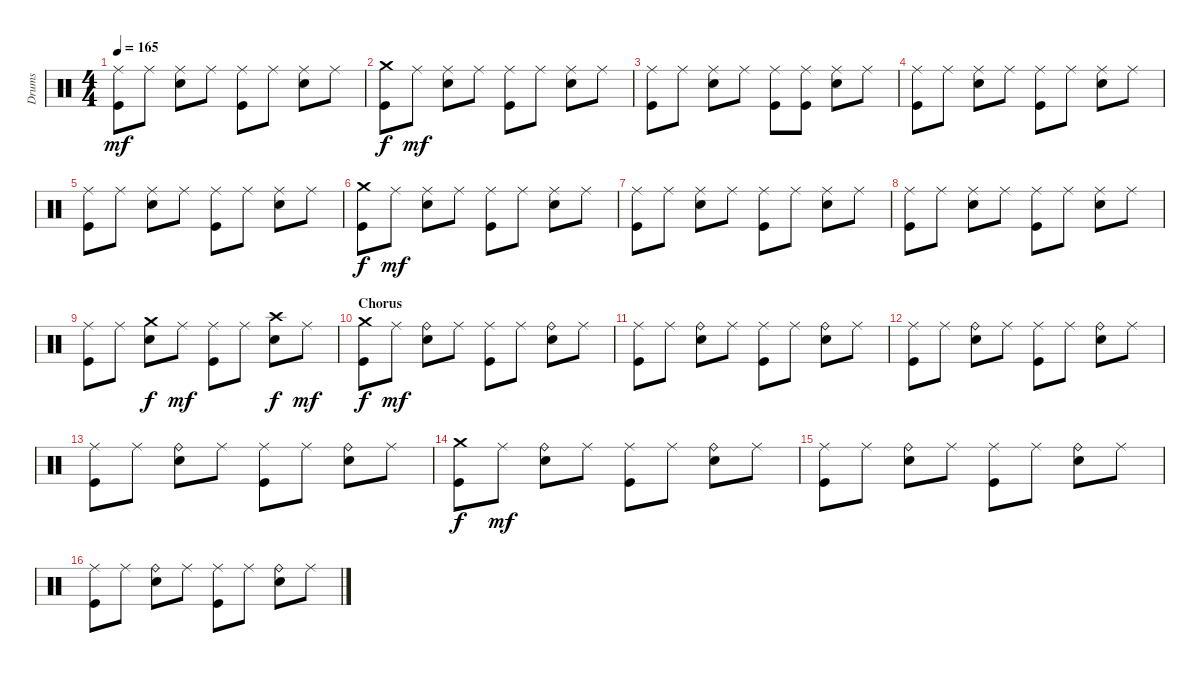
\track ("Drums" "Drums") {instrument percussion}
\staff {score}
\articulation defaults
\ts (4 4)
\tempo 165
\clef neutral
\ks c
("Ride (middle)" "Kick (hit)").8{dy mf} "Ride (middle)".8 ("Ride (middle)" "Electric Snare (hit)").8 "Ride (middle)".8 ("Ride (middle)" "Kick (hit)").8 "Ride (middle)".8 ("Ride (middle)" "Electric Snare (hit)").8 "Ride (middle)".8 |
("Crash medium (hit)" "Kick (hit)").8{dy f} "Ride (middle)".8{dy mf} ("Ride (middle)" "Electric Snare (hit)").8 "Ride (middle)".8 ("Ride (middle)" "Kick (hit)").8 "Ride (middle)".8 ("Ride (middle)" "Electric Snare (hit)").8 "Ride (middle)".8 |
("Ride (middle)" "Kick (hit)").8 "Ride (middle)".8 ("Ride (middle)" "Electric Snare (hit)").8 "Ride (middle)".8 ("Ride (middle)" "Kick (hit)").8 ("Ride (middle)" "Kick (hit)").8 ("Ride (middle)" "Electric Snare (hit)").8 "Ride (middle)".8 |
("Ride (middle)" "Kick (hit)").8 "Ride (middle)".8 ("Ride (middle)" "Electric Snare (hit)").8 "Ride (middle)".8 ("Ride (middle)" "Kick (hit)").8 "Ride (middle)".8 ("Ride (middle)" "Electric Snare (hit)").8 "Ride (middle)".8 |
("Ride (middle)" "Kick (hit)").8 "Ride (middle)".8 ("Ride (middle)" "Electric Snare (hit)").8 "Ride (middle)".8 ("Ride (middle)" "Kick (hit)").8 "Ride (middle)".8 ("Ride (middle)" "Electric Snare (hit)").8 "Ride (middle)".8 |
("Crash medium (hit)" "Kick (hit)").8{dy f} "Ride (middle)".8{dy mf} ("Ride (middle)" "Electric Snare (hit)").8 "Ride (middle)".8 ("Ride (middle)" "Kick (hit)").8 "Ride (middle)".8 ("Ride (middle)" "Electric Snare (hit)").8 "Ride (middle)".8 |
("Ride (middle)" "Kick (hit)").8 "Ride (middle)".8 ("Ride (middle)" "Electric Snare (hit)").8 "Ride (middle)".8 ("Ride (middle)" "Kick (hit)").8 "Ride (middle)".8 ("Ride (middle)" "Electric Snare (hit)").8 "Ride (middle)".8 |
("Ride (middle)" "Kick (hit)").8 "Ride (middle)".8 ("Ride (middle)" "Electric Snare (hit)").8 "Ride (middle)".8 ("Ride (middle)" "Kick (hit)").8 "Ride (middle)".8 ("Ride (middle)" "Electric Snare (hit)").8 "Ride (middle)".8 |
("Ride (middle)" "Kick (hit)").8 "Ride (middle)".8 ("Crash medium (hit)" "Electric Snare (hit)").8{dy f} "Ride (middle)".8{dy mf} ("Ride (middle)" "Kick (hit)").8 "Ride (middle)".8 ("Crash high (hit)" "Electric Snare (hit)").8{dy f} "Ride (middle)".8{dy mf} |
\section ("" "Chorus")
("Crash medium (hit)" "Kick (hit)").8{dy f} "Ride (middle)".8{dy mf} ("Ride (bell)" "Electric Snare (hit)").8 "Ride (middle)".8 ("Ride (middle)" "Kick (hit)").8 "Ride (middle)".8 ("Ride (bell)" "Electric Snare (hit)").8 "Ride (middle)".8 |
("Ride (middle)" "Kick (hit)").8 "Ride (middle)".8 ("Ride (bell)" "Electric Snare (hit)").8 "Ride (middle)".8 ("Ride (middle)" "Kick (hit)").8 "Ride (middle)".8 ("Ride (bell)" "Electric Snare (hit)").8 "Ride (middle)".8 |
("Ride (middle)" "Kick (hit)").8 "Ride (middle)".8 ("Ride (bell)" "Electric Snare (hit)").8 "Ride (middle)".8 ("Ride (middle)" "Kick (hit)").8 "Ride (middle)".8 ("Ride (bell)" "Electric Snare (hit)").8 "Ride (middle)".8 |
("Ride (middle)" "Kick (hit)").8 "Ride (middle)".8 ("Ride (bell)" "Electric Snare (hit)").8 "Ride (middle)".8 ("Ride (middle)" "Kick (hit)").8 "Ride (middle)".8 ("Ride (bell)" "Electric Snare (hit)").8 "Ride (middle)".8 |
("Crash medium (hit)" "Kick (hit)").8{dy f} "Ride (middle)".8{dy mf} ("Ride (bell)" "Electric Snare (hit)").8 "Ride (middle)".8 ("Ride (middle)" "Kick (hit)").8 "Ride (middle)".8 ("Ride (bell)" "Electric Snare (hit)").8 "Ride (middle)".8 |
("Ride (middle)" "Kick (hit)").8 "Ride (middle)".8 ("Ride (bell)" "Electric Snare (hit)").8 "Ride (middle)".8 ("Ride (middle)" "Kick (hit)").8 "Ride (middle)".8 ("Ride (bell)" "Electric Snare (hit)").8 "Ride (middle)".8 |
("Ride (middle)" "Kick (hit)").8 "Ride (middle)".8 ("Ride (bell)" "Electric Snare (hit)").8 "Ride (middle)".8 ("Ride (middle)" "Kick (hit)").8 "Ride (middle)".8 ("Ride (bell)" "Electric Snare (hit)").8 "Ride (middle)".8
